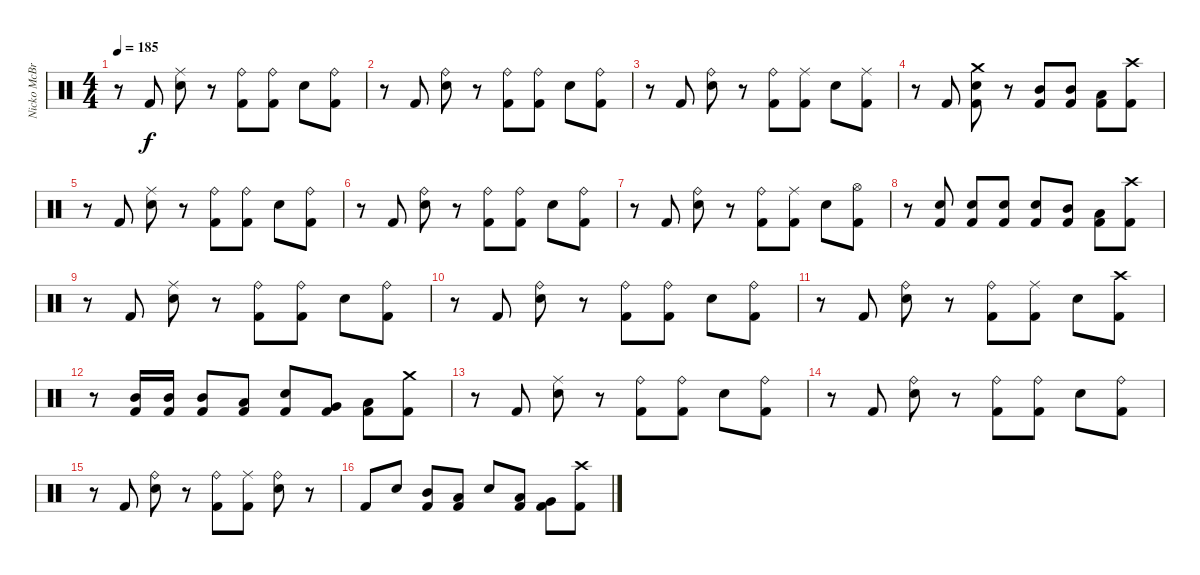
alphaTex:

\track ("Nicko McBrain" "Nicko McBr") {instrument percussion}
\staff {score}
\articulation defaults
\ts (4 4)
\tempo 185
\clef neutral
\ks c
r.8{dy f} "Kick (hit) 2".8 ("Ride (middle)" "Snare (hit) 2").8 r.8 ("Ride (bell)" "Kick (hit) 2").8 ("Ride (bell)" "Kick (hit) 2").8 "Snare (hit) 2".8 ("Ride (bell)" "Kick (hit) 2").8 |
r.8 "Kick (hit) 2".8 ("Ride (bell)" "Snare (hit) 2").8 r.8 ("Ride (bell)" "Kick (hit) 2").8 ("Ride (bell)" "Kick (hit) 2").8 "Snare (hit) 2".8 ("Ride (bell)" "Kick (hit) 2").8 |
r.8 "Kick (hit) 2".8 ("Ride (bell)" "Snare (hit) 2").8 r.8 ("Ride (bell)" "Kick (hit) 2").8 ("Ride (middle)" "Kick (hit) 2").8 "Snare (hit) 2".8 ("Ride (middle)" "Kick (hit) 2").8 |
r.8 "Kick (hit) 2".8 ("Crash medium (hit)" "Snare (hit) 2" "Kick (hit) 2").8 r.8 ("Mid Tom (hit)" "Kick (hit) 2").8 ("Mid Tom (hit)" "Kick (hit) 2").8 ("Low Tom (hit)" "Kick (hit) 2").8 ("Crash high (hit)" "Kick (hit) 2").8 |
r.8 "Kick (hit) 2".8 ("Ride (middle)" "Snare (hit) 2").8 r.8 ("Ride (bell)" "Kick (hit) 2").8 ("Ride (bell)" "Kick (hit) 2").8 "Snare (hit) 2".8 ("Ride (bell)" "Kick (hit) 2").8 |
r.8 "Kick (hit) 2".8 ("Ride (bell)" "Snare (hit) 2").8 r.8 ("Ride (bell)" "Kick (hit) 2").8 ("Ride (bell)" "Kick (hit) 2").8 "Snare (hit) 2".8 ("Ride (bell)" "Kick (hit) 2").8 |
r.8 "Kick (hit) 2".8 ("Ride (bell)" "Snare (hit) 2").8 r.8 ("Ride (bell)" "Kick (hit) 2").8 ("Ride (middle)" "Kick (hit) 2").8 "Snare (hit) 2".8 ("Hi-Hat (open)" "Kick (hit) 2").8 |
r.8 ("Snare (hit) 2" "Kick (hit) 2").8 ("Snare (hit) 2" "Kick (hit) 2").8 ("Snare (hit) 2" "Kick (hit) 2").8 ("Snare (hit) 2" "Kick (hit) 2").8 ("Mid Tom (hit)" "Kick (hit) 2").8 ("Low Tom (hit)" "Kick (hit) 2").8 ("Crash high (hit)" "Kick (hit) 2").8 |
r.8 "Kick (hit) 2".8 ("Ride (middle)" "Snare (hit) 2").8 r.8 ("Ride (bell)" "Kick (hit) 2").8 ("Ride (bell)" "Kick (hit) 2").8 "Snare (hit) 2".8 ("Ride (bell)" "Kick (hit) 2").8 |
r.8 "Kick (hit) 2".8 ("Ride (bell)" "Snare (hit) 2").8 r.8 ("Ride (bell)" "Kick (hit) 2").8 ("Ride (bell)" "Kick (hit) 2").8 "Snare (hit) 2".8 ("Ride (bell)" "Kick (hit) 2").8 |
r.8 "Kick (hit) 2".8 ("Ride (bell)" "Snare (hit) 2").8 r.8 ("Ride (bell)" "Kick (hit) 2").8 ("Ride (middle)" "Kick (hit) 2").8 "Snare (hit) 2".8 ("Crash high (hit)" "Kick (hit) 2").8 |
r.8 ("Mid Tom (hit)" "Kick (hit) 2").16 ("Mid Tom (hit)" "Kick (hit) 2").16 ("Mid Tom (hit)" "Kick (hit) 2").8 ("Low Tom (hit)" "Kick (hit) 2").8 ("Snare (hit) 2" "Kick (hit) 2").8 ("Very Low Tom (hit)" "Kick (hit) 2").8 ("Low Floor Tom (hit)" "Kick (hit) 2").8 ("Crash medium (hit)" "Kick (hit) 2").8 |
r.8 "Kick (hit) 2".8 ("Ride (middle)" "Snare (hit) 2").8 r.8 ("Ride (bell)" "Kick (hit) 2").8 ("Ride (bell)" "Kick (hit) 2").8 "Snare (hit) 2".8 ("Ride (bell)" "Kick (hit) 2").8 |
r.8 "Kick (hit) 2".8 ("Ride (bell)" "Snare (hit) 2").8 r.8 ("Ride (bell)" "Kick (hit) 2").8 ("Ride (bell)" "Kick (hit) 2").8 "Snare (hit) 2".8 ("Ride (bell)" "Kick (hit) 2").8 |
r.8 "Kick (hit) 2".8 ("Ride (bell)" "Snare (hit) 2").8 r.8 ("Ride (bell)" "Kick (hit) 2").8 ("Ride (middle)" "Kick (hit) 2").8 ("Ride (bell)" "Snare (hit) 2").8 r.8 |
"Kick (hit) 2".8 "Snare (hit) 2".8 ("Mid Tom (hit)" "Kick (hit) 2").8 ("Low Tom (hit)" "Kick (hit) 2").8 "Snare (hit) 2".8 ("Low Tom (hit)" "Kick (hit) 2").8 ("Very Low Tom (hit)" "Kick (hit) 2").8 ("Crash high (hit)" "Kick (hit) 2").8
